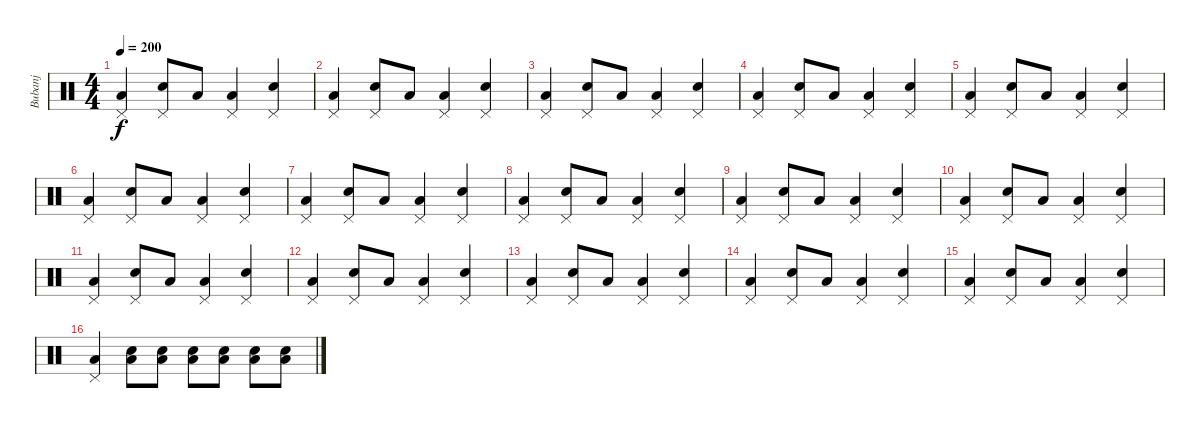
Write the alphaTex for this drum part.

\track ("Bubanj" "Bubanj") {instrument percussion}
\staff {score}
\articulation defaults
\ts (4 4)
\tempo 200
\clef neutral
\ks c
("Pedal Hi-Hat (hit)" "Low Tom (hit)").4{dy f} ("Pedal Hi-Hat (hit)" "Snare (hit) 2").8 "Low Tom (hit)".8 ("Pedal Hi-Hat (hit)" "Low Tom (hit)").4 ("Pedal Hi-Hat (hit)" "Snare (hit) 2").4 |
("Pedal Hi-Hat (hit)" "Low Tom (hit)").4 ("Pedal Hi-Hat (hit)" "Snare (hit) 2").8 "Low Tom (hit)".8 ("Pedal Hi-Hat (hit)" "Low Tom (hit)").4 ("Pedal Hi-Hat (hit)" "Snare (hit) 2").4 |
("Pedal Hi-Hat (hit)" "Low Tom (hit)").4 ("Pedal Hi-Hat (hit)" "Snare (hit) 2").8 "Low Tom (hit)".8 ("Pedal Hi-Hat (hit)" "Low Tom (hit)").4 ("Pedal Hi-Hat (hit)" "Snare (hit) 2").4 |
("Pedal Hi-Hat (hit)" "Low Tom (hit)").4 ("Pedal Hi-Hat (hit)" "Snare (hit) 2").8 "Low Tom (hit)".8 ("Pedal Hi-Hat (hit)" "Low Tom (hit)").4 ("Pedal Hi-Hat (hit)" "Snare (hit) 2").4 |
("Pedal Hi-Hat (hit)" "Low Tom (hit)").4 ("Pedal Hi-Hat (hit)" "Snare (hit) 2").8 "Low Tom (hit)".8 ("Pedal Hi-Hat (hit)" "Low Tom (hit)").4 ("Pedal Hi-Hat (hit)" "Snare (hit) 2").4 |
("Pedal Hi-Hat (hit)" "Low Tom (hit)").4 ("Pedal Hi-Hat (hit)" "Snare (hit) 2").8 "Low Tom (hit)".8 ("Pedal Hi-Hat (hit)" "Low Tom (hit)").4 ("Pedal Hi-Hat (hit)" "Snare (hit) 2").4 |
("Pedal Hi-Hat (hit)" "Low Tom (hit)").4 ("Pedal Hi-Hat (hit)" "Snare (hit) 2").8 "Low Tom (hit)".8 ("Pedal Hi-Hat (hit)" "Low Tom (hit)").4 ("Pedal Hi-Hat (hit)" "Snare (hit) 2").4 |
("Pedal Hi-Hat (hit)" "Low Tom (hit)").4 ("Pedal Hi-Hat (hit)" "Snare (hit) 2").8 "Low Tom (hit)".8 ("Pedal Hi-Hat (hit)" "Low Tom (hit)").4 ("Pedal Hi-Hat (hit)" "Snare (hit) 2").4 |
("Pedal Hi-Hat (hit)" "Low Tom (hit)").4 ("Pedal Hi-Hat (hit)" "Snare (hit) 2").8 "Low Tom (hit)".8 ("Pedal Hi-Hat (hit)" "Low Tom (hit)").4 ("Pedal Hi-Hat (hit)" "Snare (hit) 2").4 |
("Pedal Hi-Hat (hit)" "Low Tom (hit)").4 ("Pedal Hi-Hat (hit)" "Snare (hit) 2").8 "Low Tom (hit)".8 ("Pedal Hi-Hat (hit)" "Low Tom (hit)").4 ("Pedal Hi-Hat (hit)" "Snare (hit) 2").4 |
("Pedal Hi-Hat (hit)" "Low Tom (hit)").4 ("Pedal Hi-Hat (hit)" "Snare (hit) 2").8 "Low Tom (hit)".8 ("Pedal Hi-Hat (hit)" "Low Tom (hit)").4 ("Pedal Hi-Hat (hit)" "Snare (hit) 2").4 |
("Pedal Hi-Hat (hit)" "Low Tom (hit)").4 ("Pedal Hi-Hat (hit)" "Snare (hit) 2").8 "Low Tom (hit)".8 ("Pedal Hi-Hat (hit)" "Low Tom (hit)").4 ("Pedal Hi-Hat (hit)" "Snare (hit) 2").4 |
("Pedal Hi-Hat (hit)" "Low Tom (hit)").4 ("Pedal Hi-Hat (hit)" "Snare (hit) 2").8 "Low Tom (hit)".8 ("Pedal Hi-Hat (hit)" "Low Tom (hit)").4 ("Pedal Hi-Hat (hit)" "Snare (hit) 2").4 |
("Pedal Hi-Hat (hit)" "Low Tom (hit)").4 ("Pedal Hi-Hat (hit)" "Snare (hit) 2").8 "Low Tom (hit)".8 ("Pedal Hi-Hat (hit)" "Low Tom (hit)").4 ("Pedal Hi-Hat (hit)" "Snare (hit) 2").4 |
("Pedal Hi-Hat (hit)" "Low Tom (hit)").4 ("Pedal Hi-Hat (hit)" "Snare (hit) 2").8 "Low Tom (hit)".8 ("Pedal Hi-Hat (hit)" "Low Tom (hit)").4 ("Pedal Hi-Hat (hit)" "Snare (hit) 2").4 |
("Pedal Hi-Hat (hit)" "Low Tom (hit)").4 ("Snare (hit) 2" "Low Tom (hit)").8 ("Snare (hit) 2" "Low Tom (hit)").8 ("Snare (hit) 2" "Low Tom (hit)").8 ("Snare (hit) 2" "Low Tom (hit)").8 ("Snare (hit) 2" "Low Tom (hit)").8 ("Snare (hit) 2" "Low Tom (hit)").8
